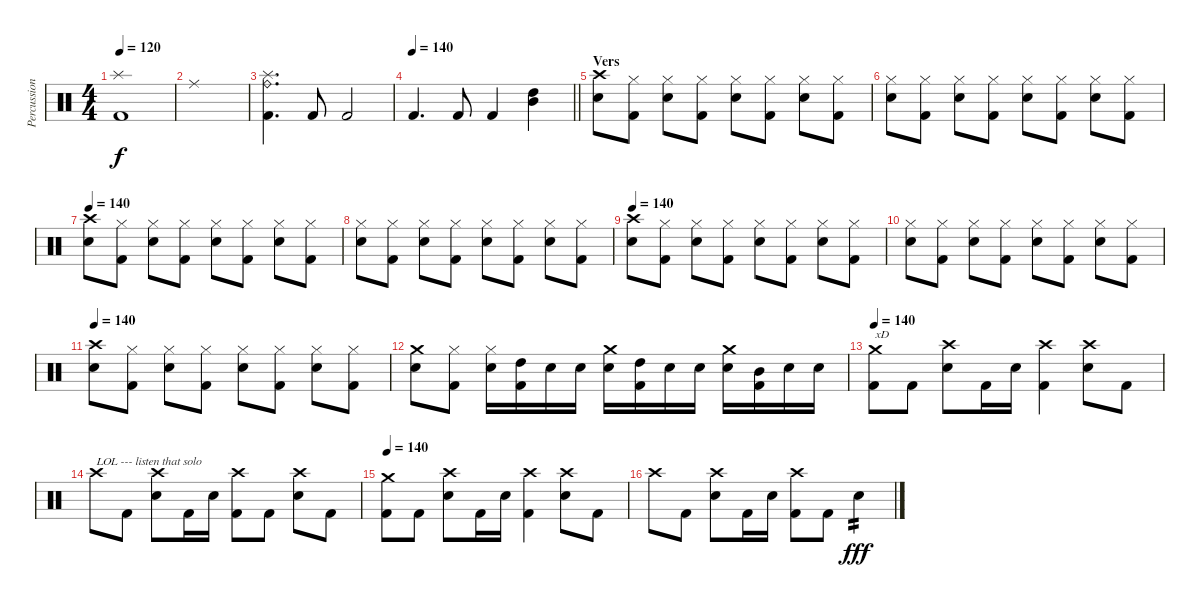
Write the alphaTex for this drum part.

\track ("Percussion" "Percussion") {instrument percussion}
\staff {score}
\articulation defaults
\ts (4 4)
\tempo 120
\clef neutral
\ks c
("Splash (hit)" "Kick (hit) 2").1{dy f} |
"Ride (middle)".1 |
("Ride (bell)" "Splash (hit)" "Kick (hit) 2").4{d} "Kick (hit) 2".8 "Kick (hit) 2".2 |
\tempo 140
\barLineRight lightlight "Kick (hit) 2".4{d} "Kick (hit) 2".8 "Kick (hit) 2".4
("Mid Tom (hit)" "High Tom (hit)").4 |
\section ("" "Vers")
("Crash high (hit)" "Electric Snare (hit)").8 ("Hi-Hat (closed)" "Kick (hit) 2").8 ("Hi-Hat (closed)" "Electric Snare (hit)").8 ("Hi-Hat (closed)" "Kick (hit) 2").8 ("Hi-Hat (closed)" "Electric Snare (hit)").8 ("Hi-Hat (closed)" "Kick (hit) 2").8 ("Hi-Hat (closed)" "Electric Snare (hit)").8 ("Hi-Hat (closed)" "Kick (hit) 2").8 |
("Hi-Hat (closed)" "Electric Snare (hit)").8 ("Hi-Hat (closed)" "Kick (hit) 2").8 ("Hi-Hat (closed)" "Electric Snare (hit)").8 ("Hi-Hat (closed)" "Kick (hit) 2").8 ("Hi-Hat (closed)" "Electric Snare (hit)").8 ("Hi-Hat (closed)" "Kick (hit) 2").8 ("Hi-Hat (closed)" "Electric Snare (hit)").8 ("Hi-Hat (closed)" "Kick (hit) 2").8 |
\tempo 140
("Crash high (hit)" "Electric Snare (hit)").8 ("Hi-Hat (closed)" "Kick (hit) 2").8 ("Hi-Hat (closed)" "Electric Snare (hit)").8 ("Hi-Hat (closed)" "Kick (hit) 2").8 ("Hi-Hat (closed)" "Electric Snare (hit)").8 ("Hi-Hat (closed)" "Kick (hit) 2").8 ("Hi-Hat (closed)" "Electric Snare (hit)").8 ("Hi-Hat (closed)" "Kick (hit) 2").8 |
("Hi-Hat (closed)" "Electric Snare (hit)").8 ("Hi-Hat (closed)" "Kick (hit) 2").8 ("Hi-Hat (closed)" "Electric Snare (hit)").8 ("Hi-Hat (closed)" "Kick (hit) 2").8 ("Hi-Hat (closed)" "Electric Snare (hit)").8 ("Hi-Hat (closed)" "Kick (hit) 2").8 ("Hi-Hat (closed)" "Electric Snare (hit)").8 ("Hi-Hat (closed)" "Kick (hit) 2").8 |
\tempo 140
("Crash high (hit)" "Electric Snare (hit)").8 ("Hi-Hat (closed)" "Kick (hit) 2").8 ("Hi-Hat (closed)" "Electric Snare (hit)").8 ("Hi-Hat (closed)" "Kick (hit) 2").8 ("Hi-Hat (closed)" "Electric Snare (hit)").8 ("Hi-Hat (closed)" "Kick (hit) 2").8 ("Hi-Hat (closed)" "Electric Snare (hit)").8 ("Hi-Hat (closed)" "Kick (hit) 2").8 |
("Hi-Hat (closed)" "Electric Snare (hit)").8 ("Hi-Hat (closed)" "Kick (hit) 2").8 ("Hi-Hat (closed)" "Electric Snare (hit)").8 ("Hi-Hat (closed)" "Kick (hit) 2").8 ("Hi-Hat (closed)" "Electric Snare (hit)").8 ("Hi-Hat (closed)" "Kick (hit) 2").8 ("Hi-Hat (closed)" "Electric Snare (hit)").8 ("Hi-Hat (closed)" "Kick (hit) 2").8 |
\tempo 140
("Crash high (hit)" "Electric Snare (hit)").8 ("Hi-Hat (closed)" "Kick (hit) 2").8 ("Hi-Hat (closed)" "Electric Snare (hit)").8 ("Hi-Hat (closed)" "Kick (hit) 2").8 ("Hi-Hat (closed)" "Electric Snare (hit)").8 ("Hi-Hat (closed)" "Kick (hit) 2").8 ("Hi-Hat (closed)" "Electric Snare (hit)").8 ("Hi-Hat (closed)" "Kick (hit) 2").8 |
("Crash medium (hit)" "Electric Snare (hit)").8 ("Hi-Hat (closed)" "Kick (hit) 2").8 ("Hi-Hat (closed)" "Electric Snare (hit)").16 ("High Tom (hit)" "Kick (hit) 2").16 "Electric Snare (hit)".16 "Electric Snare (hit)".16 ("Crash medium (hit)" "Electric Snare (hit)").16 ("High Tom (hit)" "Kick (hit) 2").16 "Electric Snare (hit)".16 "Electric Snare (hit)".16 ("Crash medium (hit)" "Electric Snare (hit)").16 ("Mid Tom (hit)" "Kick (hit) 2").16 "Electric Snare (hit)".16 "Electric Snare (hit)".16 |
\tempo 140
("Crash medium (hit)" "Kick (hit) 2").8{txt "xD"} "Kick (hit) 2".8 ("Crash high (hit)" "Electric Snare (hit)").8 "Kick (hit) 2".16 "Electric Snare (hit)".16 ("Crash high (hit)" "Kick (hit) 2").4 ("Crash high (hit)" "Electric Snare (hit)").8 "Kick (hit) 2".8 |
"Crash high (hit)".8{txt "LOL --- listen that solo"} "Kick (hit) 2".8 ("Crash high (hit)" "Electric Snare (hit)").8 "Kick (hit) 2".16 "Electric Snare (hit)".16 ("Crash high (hit)" "Kick (hit) 2").8 "Kick (hit) 2".8 ("Crash high (hit)" "Electric Snare (hit)").8 "Kick (hit) 2".8 |
\tempo 140
("Crash medium (hit)" "Kick (hit) 2").8 "Kick (hit) 2".8 ("Crash high (hit)" "Electric Snare (hit)").8 "Kick (hit) 2".16 "Electric Snare (hit)".16 ("Crash high (hit)" "Kick (hit) 2").4 ("Crash high (hit)" "Electric Snare (hit)").8 "Kick (hit) 2".8 |
"Crash high (hit)".8 "Kick (hit) 2".8 ("Crash high (hit)" "Electric Snare (hit)").8 "Kick (hit) 2".16 "Electric Snare (hit)".16 ("Crash high (hit)" "Kick (hit) 2").8 "Kick (hit) 2".8 "Electric Snare (hit)".4{tp 2 dy fff}
